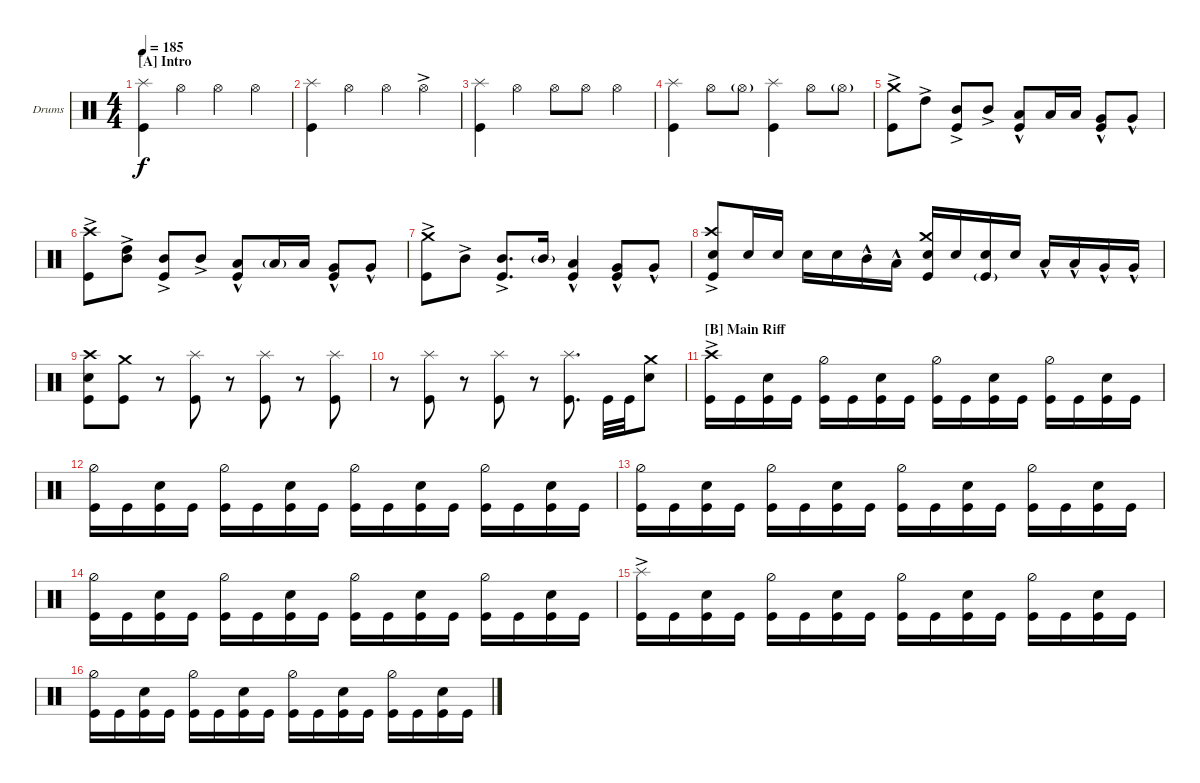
\defaultSystemsLayout 4
\bracketExtendMode groupsimilarinstruments
\firstSystemTrackNameOrientation horizontal
\otherSystemsTrackNameOrientation horizontal
\track ("Drumkit" "Drums") {instrument percussion}
\staff {score}
\articulation defaults
\ts (4 4)
\section ("A" "Intro")
\tempo 185
\clef neutral
\ks c
("Kick (hit)" "Splash (hit)").4{dy f} "Hi-Hat (open)".4 "Hi-Hat (open)".4 "Hi-Hat (open)".4 |
("Kick (hit)" "Splash (hit)").4 "Hi-Hat (open)".4 "Hi-Hat (open)".4 "Hi-Hat (open)"{ac}.4 |
("Kick (hit)" "Splash (hit)").4 "Hi-Hat (open)".4 "Hi-Hat (open)".8 "Hi-Hat (open)".8 "Hi-Hat (open)".4 |
("Kick (hit)" "Splash (hit)").4 "Hi-Hat (open)".8 "Hi-Hat (open)"{g}.8 ("Kick (hit)" "Splash (hit)").4 "Hi-Hat (open)".8 "Hi-Hat (open)"{g}.8 |
("Kick (hit)" "Crash medium (hit)"{ac}).8 "High Tom (hit)"{ac}.8 ("Kick (hit)" "Mid Tom (hit)"{ac}).8 "Mid Tom (hit)"{ac}.8 ("Kick (hit)" "Low Tom (hit)"{hac}).8 "Low Tom (hit)".16 "Low Tom (hit)".16 ("Kick (hit)" "Very Low Tom (hit)"{hac}).8 "Very Low Tom (hit)"{hac}.8 |
("Kick (hit)" "Crash high (hit)"{ac}).8 ("High Tom (hit)"{ac} "Mid Tom (hit)"{ac}).8 ("Kick (hit)" "Mid Tom (hit)"{ac}).8 "Mid Tom (hit)"{ac}.8 ("Kick (hit)" "Low Tom (hit)"{hac}).8 "Low Tom (hit)"{g}.16 "Low Tom (hit)".16 ("Kick (hit)" "Very Low Tom (hit)"{hac}).8 "Very Low Tom (hit)"{hac}.8 |
("Kick (hit)" "Crash medium (hit)"{ac}).8 "Mid Tom (hit)"{ac}.8 ("Kick (hit)" "Mid Tom (hit)"{ac}).8{d} "Mid Tom (hit)"{g}.16 ("Kick (hit)" "Low Tom (hit)"{hac}).4 ("Kick (hit)" "Very Low Tom (hit)"{hac}).8 "Very Low Tom (hit)"{hac}.8 |
("Crash high (hit)"{ac} "Kick (hit)" "Snare (hit) 2").8 "Snare (hit) 2".16 "Snare (hit) 2".16 "Snare (hit) 2".16 "Snare (hit) 2".16 "Mid Tom (hit)"{hac}.16 "Low Tom (hit)"{hac}.16 ("Kick (hit)" "Crash medium (hit)" "Snare (hit) 2").16 "Snare (hit) 2".16 ("Snare (hit) 2" "Kick (hit)"{g}).16 "Snare (hit) 2".16 "Low Tom (hit)"{hac}.16 "Low Tom (hit)"{hac}.16 "Very Low Tom (hit)"{hac}.16 "Very Low Tom (hit)"{hac}.16 |
("Kick (hit)" "Snare (hit) 2" "Crash high (hit)").8 ("Crash medium (hit)" "Kick (hit)").8 r.8 ("Kick (hit)" "Splash (hit)").8 r.8 ("Kick (hit)" "Splash (hit)").8 r.8 ("Kick (hit)" "Splash (hit)").8 |
r.8 ("Kick (hit)" "Splash (hit)").8 r.8 ("Kick (hit)" "Splash (hit)").8 r.8 ("Kick (hit)" "Splash (hit)").8{d} "Kick (hit)".32 "Kick (hit)".32 ("Snare (hit) 2" "Crash medium (hit)").8 |
\section ("B" "Main Riff")
("Kick (hit)" "Crash high (hit)"{ac}).16 "Kick (hit)".16 ("Kick (hit)" "Snare (hit) 2").16 "Kick (hit)".16 ("Kick (hit)" "Hi-Hat (half)").16 "Kick (hit)".16 ("Kick (hit)" "Snare (hit) 2").16 "Kick (hit)".16 ("Kick (hit)" "Hi-Hat (half)").16 "Kick (hit)".16 ("Kick (hit)" "Snare (hit) 2").16 "Kick (hit)".16 ("Kick (hit)" "Hi-Hat (half)").16 "Kick (hit)".16 ("Kick (hit)" "Snare (hit) 2").16 "Kick (hit)".16 |
("Kick (hit)" "Hi-Hat (half)").16 "Kick (hit)".16 ("Kick (hit)" "Snare (hit) 2").16 "Kick (hit)".16 ("Kick (hit)" "Hi-Hat (half)").16 "Kick (hit)".16 ("Kick (hit)" "Snare (hit) 2").16 "Kick (hit)".16 ("Kick (hit)" "Hi-Hat (half)").16 "Kick (hit)".16 ("Kick (hit)" "Snare (hit) 2").16 "Kick (hit)".16 ("Kick (hit)" "Hi-Hat (half)").16 "Kick (hit)".16 ("Kick (hit)" "Snare (hit) 2").16 "Kick (hit)".16 |
("Kick (hit)" "Hi-Hat (half)").16 "Kick (hit)".16 ("Kick (hit)" "Snare (hit) 2").16 "Kick (hit)".16 ("Kick (hit)" "Hi-Hat (half)").16 "Kick (hit)".16 ("Kick (hit)" "Snare (hit) 2").16 "Kick (hit)".16 ("Kick (hit)" "Hi-Hat (half)").16 "Kick (hit)".16 ("Kick (hit)" "Snare (hit) 2").16 "Kick (hit)".16 ("Kick (hit)" "Hi-Hat (half)").16 "Kick (hit)".16 ("Kick (hit)" "Snare (hit) 2").16 "Kick (hit)".16 |
("Kick (hit)" "Hi-Hat (half)").16 "Kick (hit)".16 ("Kick (hit)" "Snare (hit) 2").16 "Kick (hit)".16 ("Kick (hit)" "Hi-Hat (half)").16 "Kick (hit)".16 ("Kick (hit)" "Snare (hit) 2").16 "Kick (hit)".16 ("Kick (hit)" "Hi-Hat (half)").16 "Kick (hit)".16 ("Kick (hit)" "Snare (hit) 2").16 "Kick (hit)".16 ("Kick (hit)" "Hi-Hat (half)").16 "Kick (hit)".16 ("Kick (hit)" "Snare (hit) 2").16 "Kick (hit)".16 |
("Kick (hit)" "Splash (hit)"{ac}).16 "Kick (hit)".16 ("Kick (hit)" "Snare (hit) 2").16 "Kick (hit)".16 ("Kick (hit)" "Hi-Hat (half)").16 "Kick (hit)".16 ("Kick (hit)" "Snare (hit) 2").16 "Kick (hit)".16 ("Kick (hit)" "Hi-Hat (half)").16 "Kick (hit)".16 ("Kick (hit)" "Snare (hit) 2").16 "Kick (hit)".16 ("Kick (hit)" "Hi-Hat (half)").16 "Kick (hit)".16 ("Kick (hit)" "Snare (hit) 2").16 "Kick (hit)".16 |
("Kick (hit)" "Hi-Hat (half)").16 "Kick (hit)".16 ("Kick (hit)" "Snare (hit) 2").16 "Kick (hit)".16 ("Kick (hit)" "Hi-Hat (half)").16 "Kick (hit)".16 ("Kick (hit)" "Snare (hit) 2").16 "Kick (hit)".16 ("Kick (hit)" "Hi-Hat (half)").16 "Kick (hit)".16 ("Kick (hit)" "Snare (hit) 2").16 "Kick (hit)".16 ("Kick (hit)" "Hi-Hat (half)").16 "Kick (hit)".16 ("Kick (hit)" "Snare (hit) 2").16 "Kick (hit)".16
